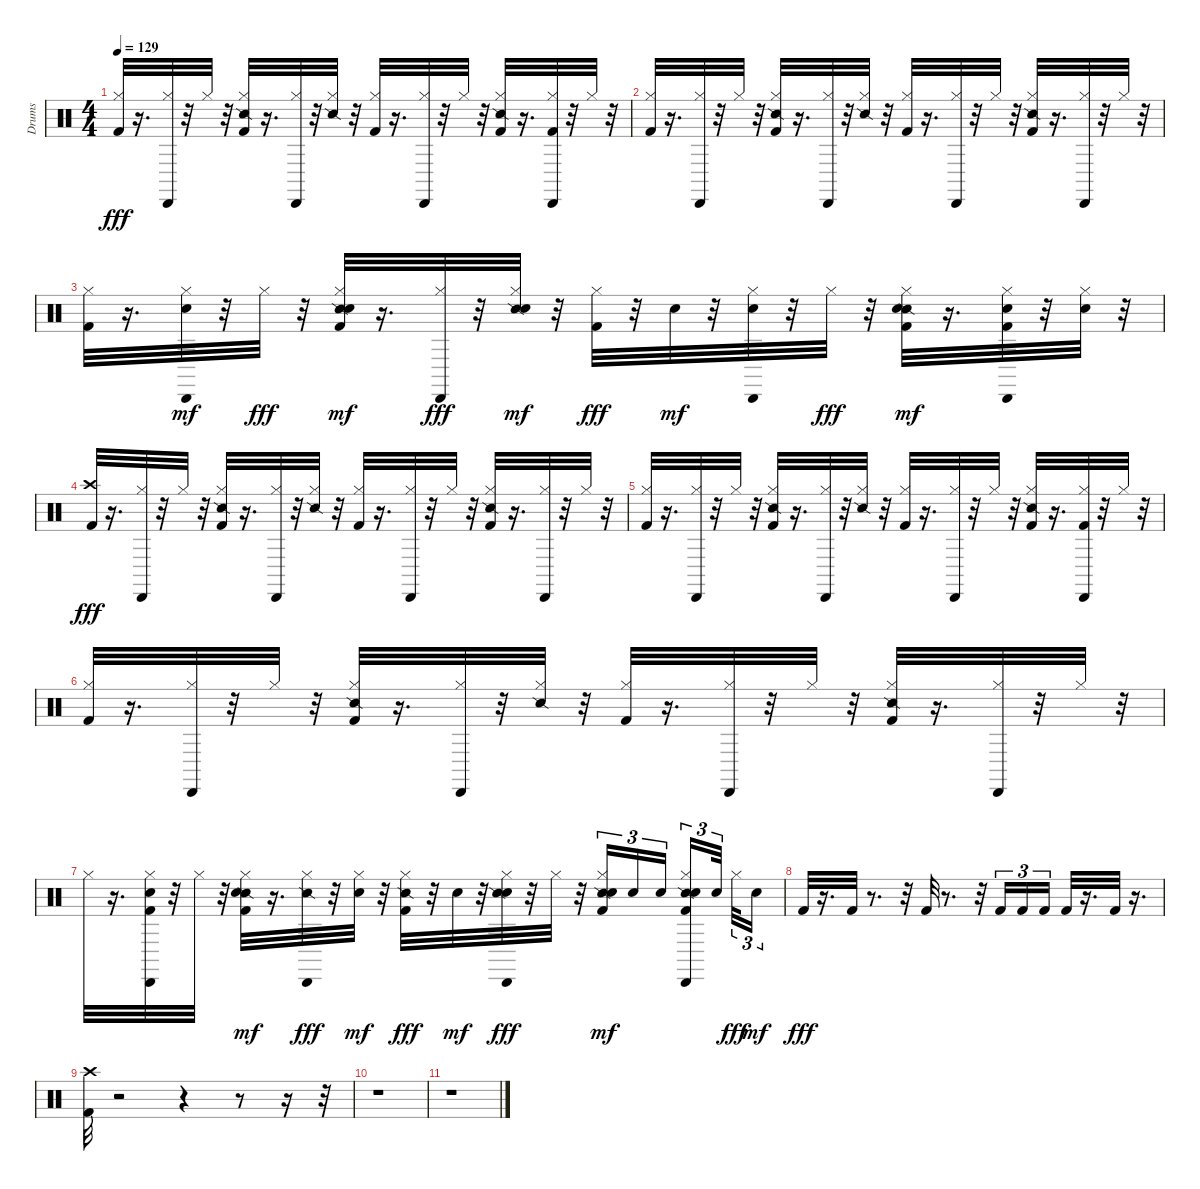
\track ("Drums" "Drums") {instrument percussion}
\staff {score}
\articulation defaults
\ts (4 4)
\tempo 129
\clef neutral
\ks c
("Kick (hit) 2" "Hi-Hat (closed)").32{dy fff} r.16{d} ("Cabasa (hit)" "Hi-Hat (closed)").32 r.32 "Hi-Hat (closed)".32 r.32 ("Snare (side stick) 2" "Hi-Hat (closed)" "Kick (hit) 2").32 r.16{d} ("Cabasa (hit)" "Hi-Hat (closed)").32 r.32 ("Snare (side stick) 2" "Hi-Hat (closed)").32 r.32 ("Kick (hit) 2" "Hi-Hat (closed)").32 r.16{d} ("Cabasa (hit)" "Hi-Hat (closed)").32 r.32 "Hi-Hat (closed)".32 r.32 ("Snare (side stick) 2" "Hi-Hat (closed)" "Kick (hit) 2").32 r.16{d} ("Kick (hit) 2" "Cabasa (hit)" "Hi-Hat (closed)").32 r.32 "Hi-Hat (closed)".32 r.32 |
("Kick (hit) 2" "Hi-Hat (closed)").32 r.16{d} ("Cabasa (hit)" "Hi-Hat (closed)").32 r.32 "Hi-Hat (closed)".32 r.32 ("Snare (side stick) 2" "Hi-Hat (closed)" "Kick (hit) 2").32 r.16{d} ("Cabasa (hit)" "Hi-Hat (closed)").32 r.32 ("Snare (side stick) 2" "Hi-Hat (closed)").32 r.32 ("Kick (hit) 2" "Hi-Hat (closed)").32 r.16{d} ("Cabasa (hit)" "Hi-Hat (closed)").32 r.32 "Hi-Hat (closed)".32 r.32 ("Snare (side stick) 2" "Hi-Hat (closed)" "Kick (hit) 2").32 r.16{d} ("Cabasa (hit)" "Hi-Hat (closed)").32 r.32 "Hi-Hat (closed)".32 r.32 |
("Kick (hit) 2" "Hi-Hat (closed)").32 r.16{d} ("Cabasa (hit)" "Hi-Hat (closed)" "Hand Clap (hit)").32{dy mf} r.32 "Hi-Hat (closed)".32{dy fff} r.32 ("Snare (side stick) 2" "Hi-Hat (closed)" "Kick (hit) 2" "Hand Clap (hit)").32{dy mf} r.16{d} ("Cabasa (hit)" "Hi-Hat (closed)").32{dy fff} r.32 ("Snare (side stick) 2" "Hi-Hat (closed)" "Hand Clap (hit)").32{dy mf} r.32 ("Kick (hit) 2" "Hi-Hat (closed)").32{dy fff} r.32 "Hand Clap (hit)".32{dy mf} r.32 ("Cabasa (hit)" "Hi-Hat (closed)" "Hand Clap (hit)").32 r.32 "Hi-Hat (closed)".32{dy fff} r.32 ("Snare (side stick) 2" "Hi-Hat (closed)" "Kick (hit) 2" "Hand Clap (hit)").32{dy mf} r.16{d} ("Kick (hit) 2" "Cabasa (hit)" "Hi-Hat (closed)" "Hand Clap (hit)").32 r.32 ("Hi-Hat (closed)" "Hand Clap (hit)").32 r.32 |
("Kick (hit) 2" "Crash high (hit)").32{dy fff} r.16{d} ("Cabasa (hit)" "Hi-Hat (closed)").32 r.32 "Hi-Hat (closed)".32 r.32 ("Snare (side stick) 2" "Hi-Hat (closed)" "Kick (hit) 2").32 r.16{d} ("Cabasa (hit)" "Hi-Hat (closed)").32 r.32 ("Snare (side stick) 2" "Hi-Hat (closed)").32 r.32 ("Kick (hit) 2" "Hi-Hat (closed)").32 r.16{d} ("Cabasa (hit)" "Hi-Hat (closed)").32 r.32 "Hi-Hat (closed)".32 r.32 ("Snare (side stick) 2" "Hi-Hat (closed)" "Kick (hit) 2").32 r.16{d} ("Cabasa (hit)" "Hi-Hat (closed)").32 r.32 "Hi-Hat (closed)".32 r.32 |
("Kick (hit) 2" "Hi-Hat (closed)").32 r.16{d} ("Cabasa (hit)" "Hi-Hat (closed)").32 r.32 "Hi-Hat (closed)".32 r.32 ("Snare (side stick) 2" "Hi-Hat (closed)" "Kick (hit) 2").32 r.16{d} ("Cabasa (hit)" "Hi-Hat (closed)").32 r.32 ("Snare (side stick) 2" "Hi-Hat (closed)").32 r.32 ("Kick (hit) 2" "Hi-Hat (closed)").32 r.16{d} ("Cabasa (hit)" "Hi-Hat (closed)").32 r.32 "Hi-Hat (closed)".32 r.32 ("Snare (side stick) 2" "Hi-Hat (closed)" "Kick (hit) 2").32 r.16{d} ("Kick (hit) 2" "Cabasa (hit)" "Hi-Hat (closed)").32 r.32 "Hi-Hat (closed)".32 r.32 |
("Kick (hit) 2" "Hi-Hat (closed)").32 r.16{d} ("Cabasa (hit)" "Hi-Hat (closed)").32 r.32 "Hi-Hat (closed)".32 r.32 ("Snare (side stick) 2" "Hi-Hat (closed)" "Kick (hit) 2").32 r.16{d} ("Cabasa (hit)" "Hi-Hat (closed)").32 r.32 ("Snare (side stick) 2" "Hi-Hat (closed)").32 r.32 ("Kick (hit) 2" "Hi-Hat (closed)").32 r.16{d} ("Cabasa (hit)" "Hi-Hat (closed)").32 r.32 "Hi-Hat (closed)".32 r.32 ("Snare (side stick) 2" "Hi-Hat (closed)" "Kick (hit) 2").32 r.16{d} ("Cabasa (hit)" "Hi-Hat (closed)").32 r.32 "Hi-Hat (closed)".32 r.32 |
"Hi-Hat (closed)".32 r.16{d} ("Cabasa (hit)" "Hi-Hat (closed)" "Hand Clap (hit)" "Kick (hit) 2").32 r.32 "Hi-Hat (closed)".32 r.32 ("Snare (side stick) 2" "Hi-Hat (closed)" "Kick (hit) 2" "Hand Clap (hit)").32{dy mf} r.16{d} ("Cabasa (hit)" "Hi-Hat (closed)" "Snare (side stick) 2").32{dy fff} r.32 ("Hi-Hat (closed)" "Hand Clap (hit)").32{dy mf} r.32 ("Kick (hit) 2" "Hi-Hat (closed)" "Snare (side stick) 2").32{dy fff} r.32 "Hand Clap (hit)".32{dy mf} r.32 ("Cabasa (hit)" "Hi-Hat (closed)" "Hand Clap (hit)" "Snare (side stick) 2").32{dy fff} r.32 "Hi-Hat (closed)".32 r.32 ("Snare (side stick) 2" "Hi-Hat (closed)" "Kick (hit) 2" "Hand Clap (hit)").16{tu (3 2) dy mf} "Hand Clap (hit)".16{tu (3 2)} "Hand Clap (hit)".16{tu (3 2) beam splitsecondary} ("Kick (hit) 2" "Cabasa (hit)" "Hi-Hat (closed)" "Snare (side stick) 2" "Hand Clap (hit)").16{tu (3 2)} "Hand Clap (hit)".32{tu (3 2) beam splitsecondary} "Hi-Hat (closed)".32{tu (3 2) dy fff} "Hand Clap (hit)".16{tu (3 2) dy mf} |
"Kick (hit) 2".32{dy fff} r.16{d} "Kick (hit) 2".32 r.8{d} r.32 "Kick (hit) 2".32 r.8{d} r.32 "Kick (hit) 2".16{tu (3 2)} "Kick (hit) 2".16{tu (3 2)} "Kick (hit) 2".16{tu (3 2)} "Kick (hit) 2".32 r.16{d} "Kick (hit) 2".32 r.16{d} |
("Kick (hit) 2" "Crash high (hit)").32 r.2 r.4 r.8 r.16 r.32 |
r.1 |
r.1
